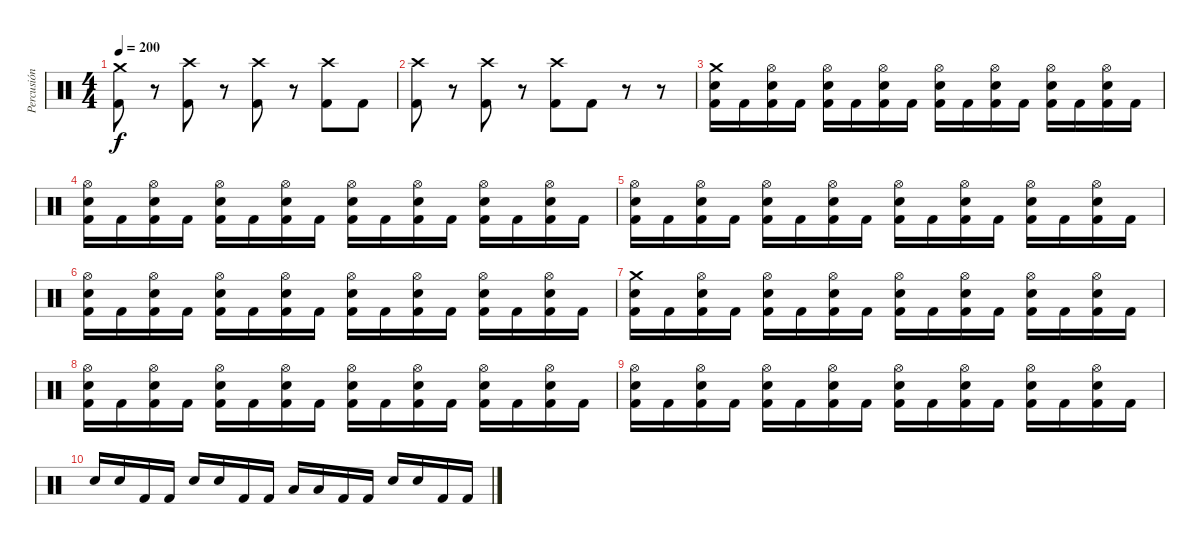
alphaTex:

\track ("Percusión" "Percusión") {instrument percussion}
\staff {score}
\articulation defaults
\ts (4 4)
\tempo 200
\clef neutral
\ks c
("Crash medium (hit)" "Kick (hit) 2").8{dy f} r.8 ("Crash high (hit)" "Kick (hit) 2").8 r.8 ("Crash high (hit)" "Kick (hit) 2").8 r.8 ("Crash high (hit)" "Kick (hit) 2").8 "Kick (hit) 2".8 |
("Crash high (hit)" "Kick (hit) 2").8 r.8{volume 0} ("Crash high (hit)" "Kick (hit) 2").8{volume 13} r.8{volume 0} ("Crash high (hit)" "Kick (hit) 2").8{volume 13} "Kick (hit) 2".8 r.8{volume 0} r.8 |
("Crash medium (hit)" "Electric Snare (hit)" "Kick (hit) 2").16{volume 13} "Kick (hit) 2".16 ("Hi-Hat (open)" "Electric Snare (hit)" "Kick (hit) 2").16 "Kick (hit) 2".16 ("Hi-Hat (open)" "Electric Snare (hit)" "Kick (hit) 2").16 "Kick (hit) 2".16 ("Hi-Hat (open)" "Electric Snare (hit)" "Kick (hit) 2").16 "Kick (hit) 2".16 ("Hi-Hat (open)" "Electric Snare (hit)" "Kick (hit) 2").16 "Kick (hit) 2".16 ("Hi-Hat (open)" "Electric Snare (hit)" "Kick (hit) 2").16 "Kick (hit) 2".16 ("Hi-Hat (open)" "Electric Snare (hit)" "Kick (hit) 2").16 "Kick (hit) 2".16 ("Hi-Hat (open)" "Electric Snare (hit)" "Kick (hit) 2").16 "Kick (hit) 2".16 |
("Hi-Hat (open)" "Electric Snare (hit)" "Kick (hit) 2").16 "Kick (hit) 2".16 ("Hi-Hat (open)" "Electric Snare (hit)" "Kick (hit) 2").16 "Kick (hit) 2".16 ("Hi-Hat (open)" "Electric Snare (hit)" "Kick (hit) 2").16 "Kick (hit) 2".16 ("Hi-Hat (open)" "Electric Snare (hit)" "Kick (hit) 2").16 "Kick (hit) 2".16 ("Hi-Hat (open)" "Electric Snare (hit)" "Kick (hit) 2").16 "Kick (hit) 2".16 ("Hi-Hat (open)" "Electric Snare (hit)" "Kick (hit) 2").16 "Kick (hit) 2".16 ("Hi-Hat (open)" "Electric Snare (hit)" "Kick (hit) 2").16 "Kick (hit) 2".16 ("Hi-Hat (open)" "Electric Snare (hit)" "Kick (hit) 2").16 "Kick (hit) 2".16 |
("Hi-Hat (open)" "Electric Snare (hit)" "Kick (hit) 2").16 "Kick (hit) 2".16 ("Hi-Hat (open)" "Electric Snare (hit)" "Kick (hit) 2").16 "Kick (hit) 2".16 ("Hi-Hat (open)" "Electric Snare (hit)" "Kick (hit) 2").16 "Kick (hit) 2".16 ("Hi-Hat (open)" "Electric Snare (hit)" "Kick (hit) 2").16 "Kick (hit) 2".16 ("Hi-Hat (open)" "Electric Snare (hit)" "Kick (hit) 2").16 "Kick (hit) 2".16 ("Hi-Hat (open)" "Electric Snare (hit)" "Kick (hit) 2").16 "Kick (hit) 2".16 ("Hi-Hat (open)" "Electric Snare (hit)" "Kick (hit) 2").16 "Kick (hit) 2".16 ("Hi-Hat (open)" "Electric Snare (hit)" "Kick (hit) 2").16 "Kick (hit) 2".16 |
("Hi-Hat (open)" "Electric Snare (hit)" "Kick (hit) 2").16 "Kick (hit) 2".16 ("Hi-Hat (open)" "Electric Snare (hit)" "Kick (hit) 2").16 "Kick (hit) 2".16 ("Hi-Hat (open)" "Electric Snare (hit)" "Kick (hit) 2").16 "Kick (hit) 2".16 ("Hi-Hat (open)" "Electric Snare (hit)" "Kick (hit) 2").16 "Kick (hit) 2".16 ("Hi-Hat (open)" "Electric Snare (hit)" "Kick (hit) 2").16 "Kick (hit) 2".16 ("Hi-Hat (open)" "Electric Snare (hit)" "Kick (hit) 2").16 "Kick (hit) 2".16 ("Hi-Hat (open)" "Electric Snare (hit)" "Kick (hit) 2").16 "Kick (hit) 2".16 ("Hi-Hat (open)" "Electric Snare (hit)" "Kick (hit) 2").16 "Kick (hit) 2".16 |
("Crash medium (hit)" "Electric Snare (hit)" "Kick (hit) 2").16 "Kick (hit) 2".16 ("Hi-Hat (open)" "Electric Snare (hit)" "Kick (hit) 2").16 "Kick (hit) 2".16 ("Hi-Hat (open)" "Electric Snare (hit)" "Kick (hit) 2").16 "Kick (hit) 2".16 ("Hi-Hat (open)" "Electric Snare (hit)" "Kick (hit) 2").16 "Kick (hit) 2".16 ("Hi-Hat (open)" "Electric Snare (hit)" "Kick (hit) 2").16 "Kick (hit) 2".16 ("Hi-Hat (open)" "Electric Snare (hit)" "Kick (hit) 2").16 "Kick (hit) 2".16 ("Hi-Hat (open)" "Electric Snare (hit)" "Kick (hit) 2").16 "Kick (hit) 2".16 ("Hi-Hat (open)" "Electric Snare (hit)" "Kick (hit) 2").16 "Kick (hit) 2".16 |
("Hi-Hat (open)" "Electric Snare (hit)" "Kick (hit) 2").16 "Kick (hit) 2".16 ("Hi-Hat (open)" "Electric Snare (hit)" "Kick (hit) 2").16 "Kick (hit) 2".16 ("Hi-Hat (open)" "Electric Snare (hit)" "Kick (hit) 2").16 "Kick (hit) 2".16 ("Hi-Hat (open)" "Electric Snare (hit)" "Kick (hit) 2").16 "Kick (hit) 2".16 ("Hi-Hat (open)" "Electric Snare (hit)" "Kick (hit) 2").16 "Kick (hit) 2".16 ("Hi-Hat (open)" "Electric Snare (hit)" "Kick (hit) 2").16 "Kick (hit) 2".16 ("Hi-Hat (open)" "Electric Snare (hit)" "Kick (hit) 2").16 "Kick (hit) 2".16 ("Hi-Hat (open)" "Electric Snare (hit)" "Kick (hit) 2").16 "Kick (hit) 2".16 |
("Hi-Hat (open)" "Electric Snare (hit)" "Kick (hit) 2").16 "Kick (hit) 2".16 ("Hi-Hat (open)" "Electric Snare (hit)" "Kick (hit) 2").16 "Kick (hit) 2".16 ("Hi-Hat (open)" "Electric Snare (hit)" "Kick (hit) 2").16 "Kick (hit) 2".16 ("Hi-Hat (open)" "Electric Snare (hit)" "Kick (hit) 2").16 "Kick (hit) 2".16 ("Hi-Hat (open)" "Electric Snare (hit)" "Kick (hit) 2").16 "Kick (hit) 2".16 ("Hi-Hat (open)" "Electric Snare (hit)" "Kick (hit) 2").16 "Kick (hit) 2".16 ("Hi-Hat (open)" "Electric Snare (hit)" "Kick (hit) 2").16 "Kick (hit) 2".16 ("Hi-Hat (open)" "Electric Snare (hit)" "Kick (hit) 2").16 "Kick (hit) 2".16 |
"Electric Snare (hit)".16 "Electric Snare (hit)".16 "Kick (hit) 2".16 "Kick (hit) 2".16 "Electric Snare (hit)".16 "Electric Snare (hit)".16 "Kick (hit) 2".16 "Kick (hit) 2".16 "Low Tom (hit)".16 "Low Tom (hit)".16 "Kick (hit) 2".16 "Kick (hit) 2".16 "Electric Snare (hit)".16 "Electric Snare (hit)".16 "Kick (hit) 2".16 "Kick (hit) 2".16
